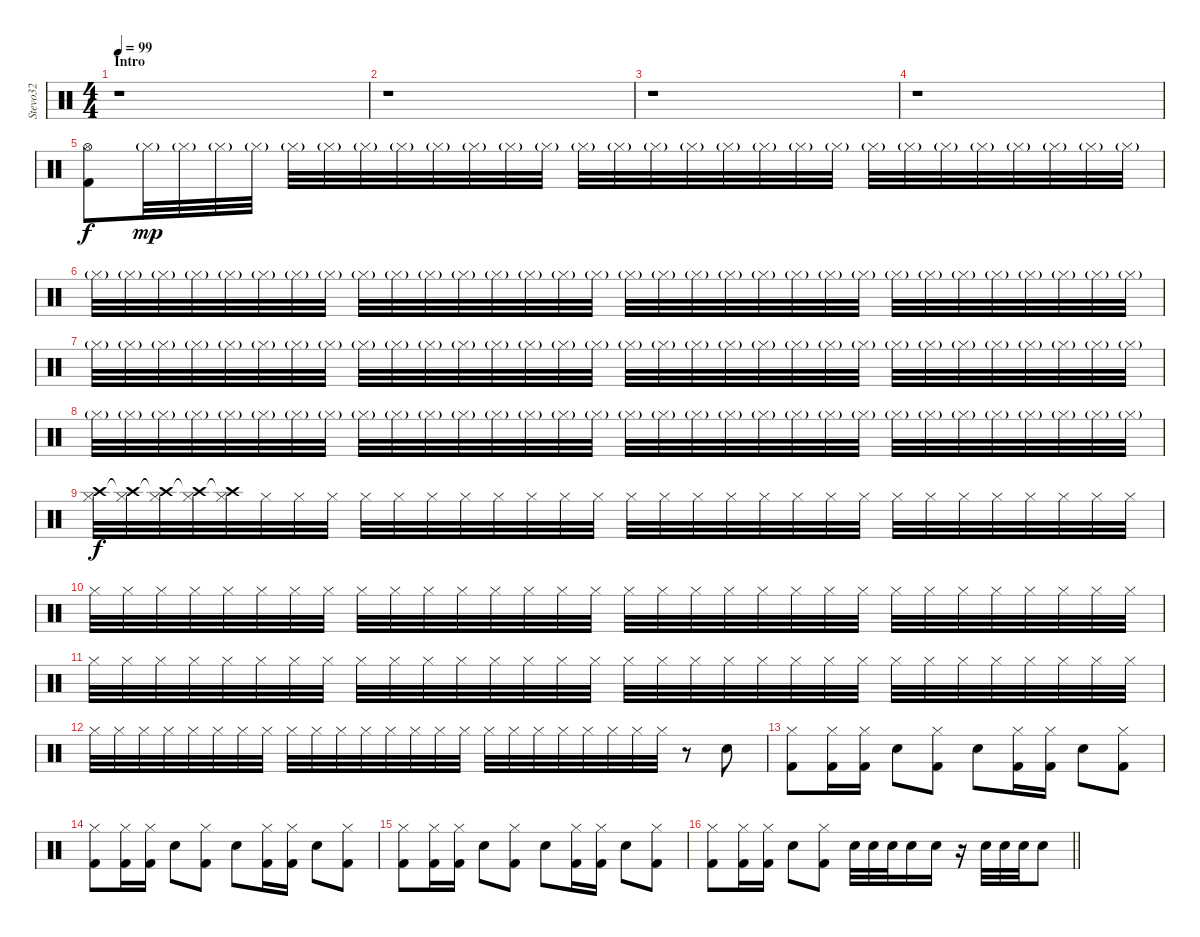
\track ("Stevo32" "Stevo32") {instrument percussion}
\staff {score}
\articulation defaults
\ts (4 4)
\section ("" "Intro")
\tempo 99
\clef neutral
\ks c
r.1{dy f} |
r.1 |
r.1 |
r.1 |
("Hi-Hat (open)" "Kick (hit) 2").8 "Hi-Hat (closed)"{g}.32{dy mp} "Hi-Hat (closed)"{g}.32 "Hi-Hat (closed)"{g}.32 "Hi-Hat (closed)"{g}.32 "Hi-Hat (closed)"{g}.32 "Hi-Hat (closed)"{g}.32 "Hi-Hat (closed)"{g}.32 "Hi-Hat (closed)"{g}.32 "Hi-Hat (closed)"{g}.32 "Hi-Hat (closed)"{g}.32 "Hi-Hat (closed)"{g}.32 "Hi-Hat (closed)"{g}.32 "Hi-Hat (closed)"{g}.32 "Hi-Hat (closed)"{g}.32 "Hi-Hat (closed)"{g}.32 "Hi-Hat (closed)"{g}.32 "Hi-Hat (closed)"{g}.32 "Hi-Hat (closed)"{g}.32 "Hi-Hat (closed)"{g}.32 "Hi-Hat (closed)"{g}.32 "Hi-Hat (closed)"{g}.32 "Hi-Hat (closed)"{g}.32 "Hi-Hat (closed)"{g}.32 "Hi-Hat (closed)"{g}.32 "Hi-Hat (closed)"{g}.32 "Hi-Hat (closed)"{g}.32 "Hi-Hat (closed)"{g}.32 "Hi-Hat (closed)"{g}.32 |
"Hi-Hat (closed)"{g}.32 "Hi-Hat (closed)"{g}.32 "Hi-Hat (closed)"{g}.32 "Hi-Hat (closed)"{g}.32 "Hi-Hat (closed)"{g}.32 "Hi-Hat (closed)"{g}.32 "Hi-Hat (closed)"{g}.32 "Hi-Hat (closed)"{g}.32 "Hi-Hat (closed)"{g}.32 "Hi-Hat (closed)"{g}.32 "Hi-Hat (closed)"{g}.32 "Hi-Hat (closed)"{g}.32 "Hi-Hat (closed)"{g}.32 "Hi-Hat (closed)"{g}.32 "Hi-Hat (closed)"{g}.32 "Hi-Hat (closed)"{g}.32 "Hi-Hat (closed)"{g}.32 "Hi-Hat (closed)"{g}.32 "Hi-Hat (closed)"{g}.32 "Hi-Hat (closed)"{g}.32 "Hi-Hat (closed)"{g}.32 "Hi-Hat (closed)"{g}.32 "Hi-Hat (closed)"{g}.32 "Hi-Hat (closed)"{g}.32 "Hi-Hat (closed)"{g}.32 "Hi-Hat (closed)"{g}.32 "Hi-Hat (closed)"{g}.32 "Hi-Hat (closed)"{g}.32 "Hi-Hat (closed)"{g}.32 "Hi-Hat (closed)"{g}.32 "Hi-Hat (closed)"{g}.32 "Hi-Hat (closed)"{g}.32 |
"Hi-Hat (closed)"{g}.32 "Hi-Hat (closed)"{g}.32 "Hi-Hat (closed)"{g}.32 "Hi-Hat (closed)"{g}.32 "Hi-Hat (closed)"{g}.32 "Hi-Hat (closed)"{g}.32 "Hi-Hat (closed)"{g}.32 "Hi-Hat (closed)"{g}.32 "Hi-Hat (closed)"{g}.32 "Hi-Hat (closed)"{g}.32 "Hi-Hat (closed)"{g}.32 "Hi-Hat (closed)"{g}.32 "Hi-Hat (closed)"{g}.32 "Hi-Hat (closed)"{g}.32 "Hi-Hat (closed)"{g}.32 "Hi-Hat (closed)"{g}.32 "Hi-Hat (closed)"{g}.32 "Hi-Hat (closed)"{g}.32 "Hi-Hat (closed)"{g}.32 "Hi-Hat (closed)"{g}.32 "Hi-Hat (closed)"{g}.32 "Hi-Hat (closed)"{g}.32 "Hi-Hat (closed)"{g}.32 "Hi-Hat (closed)"{g}.32 "Hi-Hat (closed)"{g}.32 "Hi-Hat (closed)"{g}.32 "Hi-Hat (closed)"{g}.32 "Hi-Hat (closed)"{g}.32 "Hi-Hat (closed)"{g}.32 "Hi-Hat (closed)"{g}.32 "Hi-Hat (closed)"{g}.32 "Hi-Hat (closed)"{g}.32 |
"Hi-Hat (closed)"{g}.32 "Hi-Hat (closed)"{g}.32 "Hi-Hat (closed)"{g}.32 "Hi-Hat (closed)"{g}.32 "Hi-Hat (closed)"{g}.32 "Hi-Hat (closed)"{g}.32 "Hi-Hat (closed)"{g}.32 "Hi-Hat (closed)"{g}.32 "Hi-Hat (closed)"{g}.32 "Hi-Hat (closed)"{g}.32 "Hi-Hat (closed)"{g}.32 "Hi-Hat (closed)"{g}.32 "Hi-Hat (closed)"{g}.32 "Hi-Hat (closed)"{g}.32 "Hi-Hat (closed)"{g}.32 "Hi-Hat (closed)"{g}.32 "Hi-Hat (closed)"{g}.32 "Hi-Hat (closed)"{g}.32 "Hi-Hat (closed)"{g}.32 "Hi-Hat (closed)"{g}.32 "Hi-Hat (closed)"{g}.32 "Hi-Hat (closed)"{g}.32 "Hi-Hat (closed)"{g}.32 "Hi-Hat (closed)"{g}.32 "Hi-Hat (closed)"{g}.32 "Hi-Hat (closed)"{g}.32 "Hi-Hat (closed)"{g}.32 "Hi-Hat (closed)"{g}.32 "Hi-Hat (closed)"{g}.32 "Hi-Hat (closed)"{g}.32 "Hi-Hat (closed)"{g}.32 "Hi-Hat (closed)"{g}.32 |
("Crash high (hit)" "Hi-Hat (closed)").32{dy f} ("Crash high (hit)"{t} "Hi-Hat (closed)").32 ("Crash high (hit)"{t} "Hi-Hat (closed)").32 ("Crash high (hit)"{t} "Hi-Hat (closed)").32 ("Crash high (hit)"{t} "Hi-Hat (closed)").32 "Hi-Hat (closed)".32 "Hi-Hat (closed)".32 "Hi-Hat (closed)".32 "Hi-Hat (closed)".32 "Hi-Hat (closed)".32 "Hi-Hat (closed)".32 "Hi-Hat (closed)".32 "Hi-Hat (closed)".32 "Hi-Hat (closed)".32 "Hi-Hat (closed)".32 "Hi-Hat (closed)".32 "Hi-Hat (closed)".32 "Hi-Hat (closed)".32 "Hi-Hat (closed)".32 "Hi-Hat (closed)".32 "Hi-Hat (closed)".32 "Hi-Hat (closed)".32 "Hi-Hat (closed)".32 "Hi-Hat (closed)".32 "Hi-Hat (closed)".32 "Hi-Hat (closed)".32 "Hi-Hat (closed)".32 "Hi-Hat (closed)".32 "Hi-Hat (closed)".32 "Hi-Hat (closed)".32 "Hi-Hat (closed)".32 "Hi-Hat (closed)".32 |
"Hi-Hat (closed)".32 "Hi-Hat (closed)".32 "Hi-Hat (closed)".32 "Hi-Hat (closed)".32 "Hi-Hat (closed)".32 "Hi-Hat (closed)".32 "Hi-Hat (closed)".32 "Hi-Hat (closed)".32 "Hi-Hat (closed)".32 "Hi-Hat (closed)".32 "Hi-Hat (closed)".32 "Hi-Hat (closed)".32 "Hi-Hat (closed)".32 "Hi-Hat (closed)".32 "Hi-Hat (closed)".32 "Hi-Hat (closed)".32 "Hi-Hat (closed)".32 "Hi-Hat (closed)".32 "Hi-Hat (closed)".32 "Hi-Hat (closed)".32 "Hi-Hat (closed)".32 "Hi-Hat (closed)".32 "Hi-Hat (closed)".32 "Hi-Hat (closed)".32 "Hi-Hat (closed)".32 "Hi-Hat (closed)".32 "Hi-Hat (closed)".32 "Hi-Hat (closed)".32 "Hi-Hat (closed)".32 "Hi-Hat (closed)".32 "Hi-Hat (closed)".32 "Hi-Hat (closed)".32 |
"Hi-Hat (closed)".32 "Hi-Hat (closed)".32 "Hi-Hat (closed)".32 "Hi-Hat (closed)".32 "Hi-Hat (closed)".32 "Hi-Hat (closed)".32 "Hi-Hat (closed)".32 "Hi-Hat (closed)".32 "Hi-Hat (closed)".32 "Hi-Hat (closed)".32 "Hi-Hat (closed)".32 "Hi-Hat (closed)".32 "Hi-Hat (closed)".32 "Hi-Hat (closed)".32 "Hi-Hat (closed)".32 "Hi-Hat (closed)".32 "Hi-Hat (closed)".32 "Hi-Hat (closed)".32 "Hi-Hat (closed)".32 "Hi-Hat (closed)".32 "Hi-Hat (closed)".32 "Hi-Hat (closed)".32 "Hi-Hat (closed)".32 "Hi-Hat (closed)".32 "Hi-Hat (closed)".32 "Hi-Hat (closed)".32 "Hi-Hat (closed)".32 "Hi-Hat (closed)".32 "Hi-Hat (closed)".32 "Hi-Hat (closed)".32 "Hi-Hat (closed)".32 "Hi-Hat (closed)".32 |
"Hi-Hat (closed)".32 "Hi-Hat (closed)".32 "Hi-Hat (closed)".32 "Hi-Hat (closed)".32 "Hi-Hat (closed)".32 "Hi-Hat (closed)".32 "Hi-Hat (closed)".32 "Hi-Hat (closed)".32 "Hi-Hat (closed)".32 "Hi-Hat (closed)".32 "Hi-Hat (closed)".32 "Hi-Hat (closed)".32 "Hi-Hat (closed)".32 "Hi-Hat (closed)".32 "Hi-Hat (closed)".32 "Hi-Hat (closed)".32 "Hi-Hat (closed)".32 "Hi-Hat (closed)".32 "Hi-Hat (closed)".32 "Hi-Hat (closed)".32 "Hi-Hat (closed)".32 "Hi-Hat (closed)".32 "Hi-Hat (closed)".32 "Hi-Hat (closed)".32 r.8 "Electric Snare (hit)".8 |
("Hi-Hat (closed)" "Kick (hit) 2").8 ("Hi-Hat (closed)" "Kick (hit) 2").16 ("Hi-Hat (closed)" "Kick (hit) 2").16 "Electric Snare (hit)".8 ("Hi-Hat (closed)" "Kick (hit) 2").8 "Electric Snare (hit)".8 ("Hi-Hat (closed)" "Kick (hit) 2").16 ("Hi-Hat (closed)" "Kick (hit) 2").16 "Electric Snare (hit)".8 ("Hi-Hat (closed)" "Kick (hit) 2").8 |
("Hi-Hat (closed)" "Kick (hit) 2").8 ("Hi-Hat (closed)" "Kick (hit) 2").16 ("Hi-Hat (closed)" "Kick (hit) 2").16 "Electric Snare (hit)".8 ("Hi-Hat (closed)" "Kick (hit) 2").8 "Electric Snare (hit)".8 ("Hi-Hat (closed)" "Kick (hit) 2").16 ("Hi-Hat (closed)" "Kick (hit) 2").16 "Electric Snare (hit)".8 ("Hi-Hat (closed)" "Kick (hit) 2").8 |
("Hi-Hat (closed)" "Kick (hit) 2").8 ("Hi-Hat (closed)" "Kick (hit) 2").16 ("Hi-Hat (closed)" "Kick (hit) 2").16 "Electric Snare (hit)".8 ("Hi-Hat (closed)" "Kick (hit) 2").8 "Electric Snare (hit)".8 ("Hi-Hat (closed)" "Kick (hit) 2").16 ("Hi-Hat (closed)" "Kick (hit) 2").16 "Electric Snare (hit)".8 ("Hi-Hat (closed)" "Kick (hit) 2").8 |
\barLineRight lightlight
("Hi-Hat (closed)" "Kick (hit) 2").8 ("Hi-Hat (closed)" "Kick (hit) 2").16 ("Hi-Hat (closed)" "Kick (hit) 2").16 "Electric Snare (hit)".8 ("Hi-Hat (closed)" "Kick (hit) 2").8 "Snare (hit) 2".32 "Snare (hit) 2".32 "Snare (hit) 2".32 "Snare (hit) 2".16 "Snare (hit) 2".16 r.16 "Electric Snare (hit)".32 "Electric Snare (hit)".32 "Electric Snare (hit)".32 "Electric Snare (hit)".8
